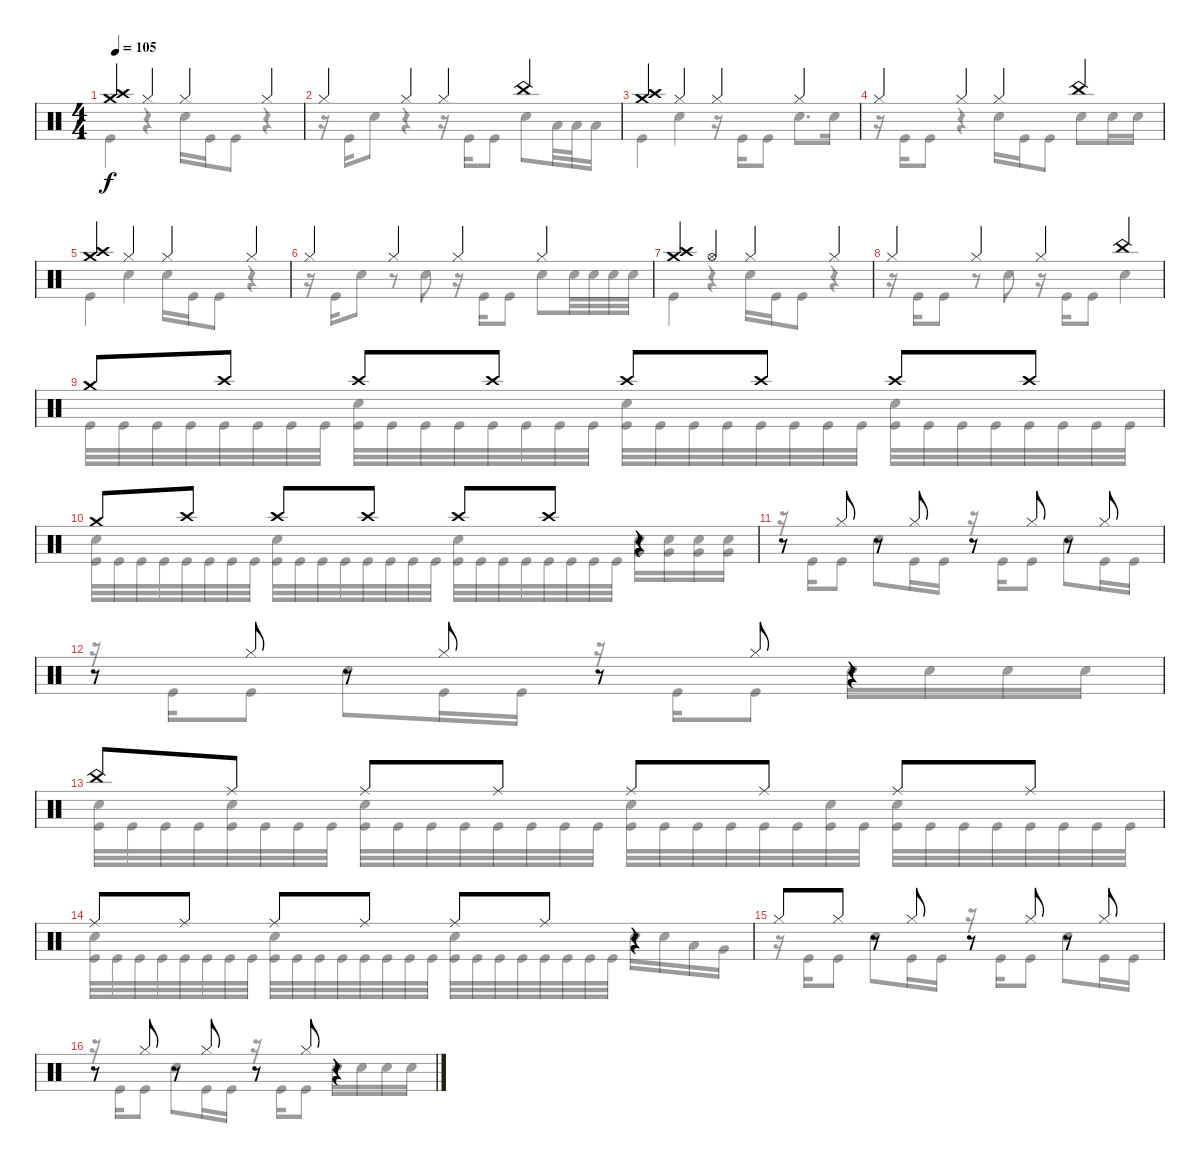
\track "" {instrument percussion}
\staff {score}
\articulation defaults
\voice
\ts (4 4)
\tempo 105
\clef neutral
\ks c
("Crash high (hit)" "Crash medium (hit)").4{dy f} "Hi-Hat (closed)".4 "Hi-Hat (closed)".4 "Hi-Hat (closed)".4 |
"Hi-Hat (closed)".4 "Hi-Hat (closed)".4 "Hi-Hat (closed)".4 "China (hit)".4 |
("Crash high (hit)" "Crash medium (hit)").4 "Hi-Hat (closed)".4 "Hi-Hat (closed)".4 "Hi-Hat (closed)".4 |
"Hi-Hat (closed)".4 "Hi-Hat (closed)".4 "Hi-Hat (closed)".4 "China (hit)".4 |
("Crash high (hit)" "Crash medium (hit)").4 "Hi-Hat (closed)".4 "Hi-Hat (closed)".4 "Hi-Hat (closed)".4 |
"Hi-Hat (closed)".4 "Hi-Hat (closed)".4 "Hi-Hat (closed)".4 "Hi-Hat (closed)".4 |
("Crash high (hit)" "Crash medium (hit)").4 "Hi-Hat (open)".4 "Hi-Hat (closed)".4 "Hi-Hat (closed)".4 |
"Hi-Hat (closed)".4 "Hi-Hat (closed)".4 "Hi-Hat (closed)".4 "China (hit)".4 |
"Crash medium (hit)".8 "Crash high (hit)".8 "Crash high (hit)".8 "Crash high (hit)".8 "Crash high (hit)".8 "Crash high (hit)".8 "Crash high (hit)".8 "Crash high (hit)".8 |
"Crash medium (hit)".8 "Crash high (hit)".8 "Crash high (hit)".8 "Crash high (hit)".8 "Crash high (hit)".8 "Crash high (hit)".8 r.4 |
r.8 "Hi-Hat (closed)".8 r.8 "Hi-Hat (closed)".8 r.8 "Hi-Hat (closed)".8 r.8 "Hi-Hat (closed)".8 |
r.8 "Hi-Hat (closed)".8 r.8 "Hi-Hat (closed)".8 r.8 "Hi-Hat (closed)".8 r.4 |
"China (hit)".8 "Ride (middle)".8 "Ride (middle)".8 "Ride (middle)".8 "Ride (middle)".8 "Ride (middle)".8 "Ride (middle)".8 "Ride (middle)".8 |
"Ride (middle)".8 "Ride (middle)".8 "Ride (middle)".8 "Ride (middle)".8 "Ride (middle)".8 "Ride (middle)".8 r.4 |
"Hi-Hat (closed)".8 "Hi-Hat (closed)".8 r.8 "Hi-Hat (closed)".8 r.8 "Hi-Hat (closed)".8 r.8 "Hi-Hat (closed)".8 |
r.8 "Hi-Hat (closed)".8 r.8 "Hi-Hat (closed)".8 r.8 "Hi-Hat (closed)".8 r.4
\voice
\clef neutral
\ottava regular
\simile none
\ks c "Kick (hit)".4{dy f}
r.4 "Snare (hit) 2".16 "Kick (hit)".16 "Kick (hit)".8 r.4 |
r.16 "Kick (hit)".16 "Snare (hit) 2".8 r.4 r.16 "Kick (hit)".16 "Kick (hit)".8 "Snare (hit) 2".8 "Low Tom (hit)".32 "Low Tom (hit)".32 "Low Tom (hit)".16 |
"Kick (hit)".4 "Snare (hit) 2".4 r.16 "Kick (hit)".16 "Kick (hit)".8 "Snare (hit) 2".8{d} "Snare (hit) 2".16 |
r.16 "Kick (hit)".16 "Kick (hit)".8 r.4 "Snare (hit) 2".16 "Kick (hit)".16 "Kick (hit)".8 "Snare (hit) 2".8 "Snare (hit) 2".16 "Snare (hit) 2".16 |
"Kick (hit)".4 "Snare (hit) 2".4 "Snare (hit) 2".16 "Kick (hit)".16 "Kick (hit)".8 r.4 |
r.16 "Kick (hit)".16 "Snare (hit) 2".8 r.8 "Snare (hit) 2".8 r.16 "Kick (hit)".16 "Kick (hit)".8 "Snare (hit) 2".8 "Snare (hit) 2".32 "Snare (hit) 2".32 "Snare (hit) 2".32 "Snare (hit) 2".32 |
"Kick (hit)".4 r.4 "Snare (hit) 2".16 "Kick (hit)".16 "Kick (hit)".8 r.4 |
r.16 "Kick (hit)".16 "Kick (hit)".8 r.8 "Snare (hit) 2".8 r.16 "Kick (hit)".16 "Kick (hit)".8 "Snare (hit) 2".4 |
"Kick (hit)".32 "Kick (hit)".32 "Kick (hit)".32 "Kick (hit)".32 "Kick (hit)".32 "Kick (hit)".32 "Kick (hit)".32 "Kick (hit)".32 ("Snare (hit) 2" "Kick (hit)").32 "Kick (hit)".32 "Kick (hit)".32 "Kick (hit)".32 "Kick (hit)".32 "Kick (hit)".32 "Kick (hit)".32 "Kick (hit)".32 ("Snare (hit) 2" "Kick (hit)").32 "Kick (hit)".32 "Kick (hit)".32 "Kick (hit)".32 "Kick (hit)".32 "Kick (hit)".32 "Kick (hit)".32 "Kick (hit)".32 ("Snare (hit) 2" "Kick (hit)").32 "Kick (hit)".32 "Kick (hit)".32 "Kick (hit)".32 "Kick (hit)".32 "Kick (hit)".32 "Kick (hit)".32 "Kick (hit)".32 |
("Snare (hit) 2" "Kick (hit)").32 "Kick (hit)".32 "Kick (hit)".32 "Kick (hit)".32 "Kick (hit)".32 "Kick (hit)".32 "Kick (hit)".32 "Kick (hit)".32 ("Snare (hit) 2" "Kick (hit)").32 "Kick (hit)".32 "Kick (hit)".32 "Kick (hit)".32 "Kick (hit)".32 "Kick (hit)".32 "Kick (hit)".32 "Kick (hit)".32 ("Snare (hit) 2" "Kick (hit)").32 "Kick (hit)".32 "Kick (hit)".32 "Kick (hit)".32 "Kick (hit)".32 "Kick (hit)".32 "Kick (hit)".32 "Kick (hit)".32 ("Snare (hit) 2" "Very Low Tom (hit)").16 ("Snare (hit) 2" "Very Low Tom (hit)").16 ("Snare (hit) 2" "Very Low Tom (hit)").16 ("Snare (hit) 2" "Very Low Tom (hit)").16 |
r.16 "Kick (hit)".16 "Kick (hit)".8 "Snare (hit) 2".8 "Kick (hit)".16 "Kick (hit)".16 r.16 "Kick (hit)".16 "Kick (hit)".8 "Snare (hit) 2".8 "Kick (hit)".16 "Kick (hit)".16 |
r.16 "Kick (hit)".16 "Kick (hit)".8 "Snare (hit) 2".8 "Kick (hit)".16 "Kick (hit)".16 r.16 "Kick (hit)".16 "Kick (hit)".8 "Snare (hit) 2".16 "Snare (hit) 2".16 "Snare (hit) 2".16 "Snare (hit) 2".16 |
("Snare (hit) 2" "Kick (hit)").32 "Kick (hit)".32 "Kick (hit)".32 "Kick (hit)".32 ("Snare (hit) 2" "Kick (hit)").32 "Kick (hit)".32 "Kick (hit)".32 "Kick (hit)".32 ("Snare (hit) 2" "Kick (hit)").32 "Kick (hit)".32 "Kick (hit)".32 "Kick (hit)".32 "Kick (hit)".32 "Kick (hit)".32 "Kick (hit)".32 "Kick (hit)".32 ("Snare (hit) 2" "Kick (hit)").32 "Kick (hit)".32 "Kick (hit)".32 "Kick (hit)".32 "Kick (hit)".32 "Kick (hit)".32 ("Snare (hit) 2" "Kick (hit)").32 "Kick (hit)".32 ("Snare (hit) 2" "Kick (hit)").32 "Kick (hit)".32 "Kick (hit)".32 "Kick (hit)".32 "Kick (hit)".32 "Kick (hit)".32 "Kick (hit)".32 "Kick (hit)".32 |
("Snare (hit) 2" "Kick (hit)").32 "Kick (hit)".32 "Kick (hit)".32 "Kick (hit)".32 "Kick (hit)".32 "Kick (hit)".32 "Kick (hit)".32 "Kick (hit)".32 ("Snare (hit) 2" "Kick (hit)").32 "Kick (hit)".32 "Kick (hit)".32 "Kick (hit)".32 "Kick (hit)".32 "Kick (hit)".32 "Kick (hit)".32 "Kick (hit)".32 ("Snare (hit) 2" "Kick (hit)").32 "Kick (hit)".32 "Kick (hit)".32 "Kick (hit)".32 "Kick (hit)".32 "Kick (hit)".32 "Kick (hit)".32 "Kick (hit)".32 "Snare (hit) 2".16 "Snare (hit) 2".16 "Low Tom (hit)".16 "Very Low Tom (hit)".16 |
r.16 "Kick (hit)".16 "Kick (hit)".8 "Snare (hit) 2".8 "Kick (hit)".16 "Kick (hit)".16 r.16 "Kick (hit)".16 "Kick (hit)".8 "Snare (hit) 2".8 "Kick (hit)".16 "Kick (hit)".16 |
r.16 "Kick (hit)".16 "Kick (hit)".8 "Snare (hit) 2".8 "Kick (hit)".16 "Kick (hit)".16 r.16 "Kick (hit)".16 "Kick (hit)".8 "Snare (hit) 2".16 "Snare (hit) 2".16 "Snare (hit) 2".16 "Snare (hit) 2".16
